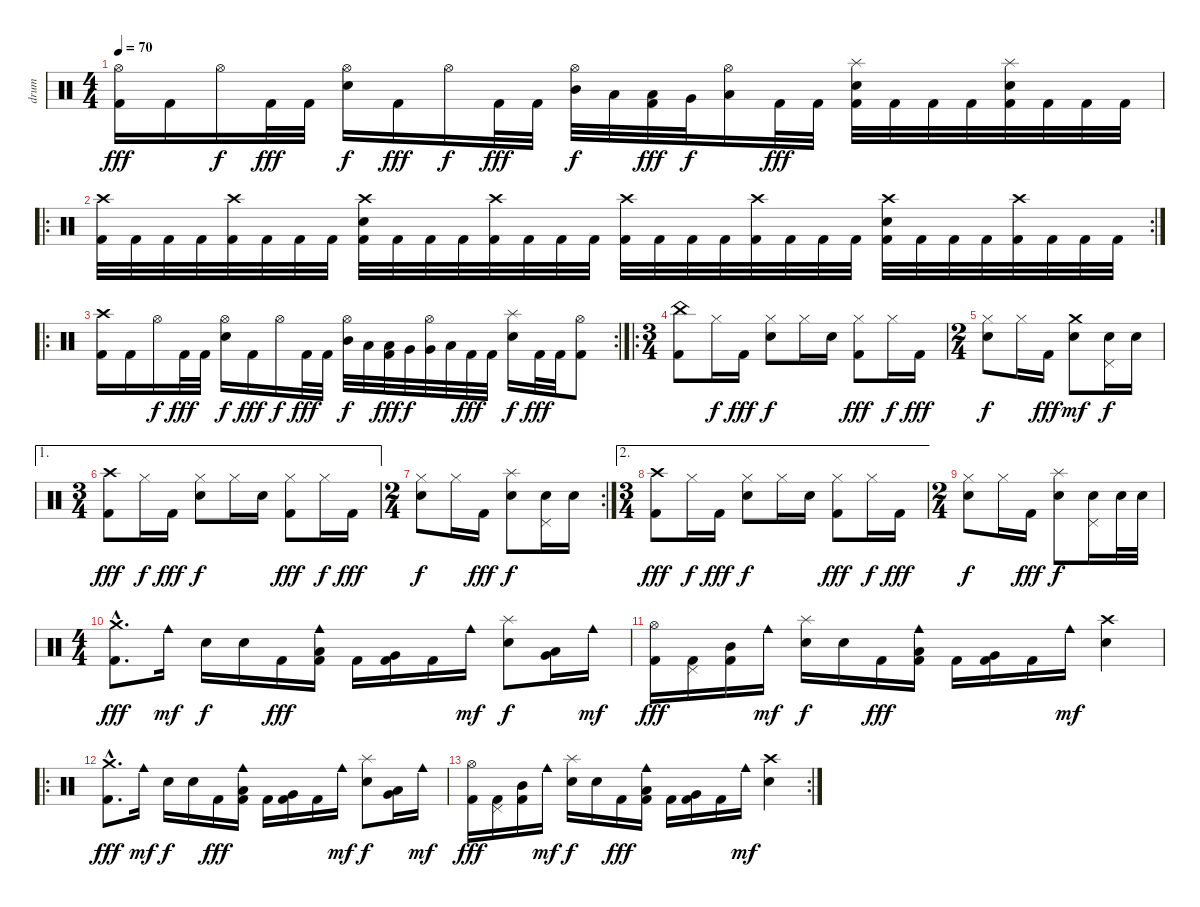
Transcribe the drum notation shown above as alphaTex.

\track ("drum" "drum") {instrument percussion}
\staff {score}
\articulation defaults
\ts (4 4)
\tempo 70
\clef neutral
\ks c
("Hi-Hat (open)" "Kick (hit) 2").16{dy fff} "Kick (hit) 2".16 "Hi-Hat (open)".16{dy f} "Kick (hit) 2".32{dy fff} "Kick (hit) 2".32 ("Hi-Hat (open)" "Electric Snare (hit)").16{dy f} "Kick (hit) 2".16{dy fff} "Hi-Hat (open)".16{dy f} "Kick (hit) 2".32{dy fff} "Kick (hit) 2".32 ("Hi-Hat (open)" "Mid Tom (hit)").32{dy f} "Low Tom (hit)".32 ("Low Tom (hit)" "Kick (hit) 2").32{dy fff} "Very Low Tom (hit)".32{dy f} ("Hi-Hat (open)" "Low Floor Tom (hit)").16 "Kick (hit) 2".32{dy fff} "Kick (hit) 2".32 ("Splash (hit)" "Electric Snare (hit)" "Kick (hit) 2").32 "Kick (hit) 2".32 "Kick (hit) 2".32 "Kick (hit) 2".32 ("Splash (hit)" "Electric Snare (hit)" "Kick (hit) 2").32 "Kick (hit) 2".32 "Kick (hit) 2".32 "Kick (hit) 2".32 |
\ro
\rc 2
("Crash high (hit)" "Kick (hit) 2").32 "Kick (hit) 2".32 "Kick (hit) 2".32 "Kick (hit) 2".32 ("Crash high (hit)" "Kick (hit) 2").32 "Kick (hit) 2".32 "Kick (hit) 2".32 "Kick (hit) 2".32 ("Crash high (hit)" "Electric Snare (hit)" "Kick (hit) 2").32 "Kick (hit) 2".32 "Kick (hit) 2".32 "Kick (hit) 2".32 ("Crash high (hit)" "Kick (hit) 2").32 "Kick (hit) 2".32 "Kick (hit) 2".32 "Kick (hit) 2".32 ("Crash high (hit)" "Kick (hit) 2").32 "Kick (hit) 2".32 "Kick (hit) 2".32 "Kick (hit) 2".32 ("Crash high (hit)" "Kick (hit) 2").32 "Kick (hit) 2".32 "Kick (hit) 2".32 "Kick (hit) 2".32 ("Crash high (hit)" "Electric Snare (hit)" "Kick (hit) 2").32 "Kick (hit) 2".32 "Kick (hit) 2".32 "Kick (hit) 2".32 ("Crash high (hit)" "Kick (hit) 2").32 "Kick (hit) 2".32 "Kick (hit) 2".32 "Kick (hit) 2".32 |
\ro
\rc 2
("Crash high (hit)" "Kick (hit) 2").16 "Kick (hit) 2".16 "Hi-Hat (open)".16{dy f} "Kick (hit) 2".32{dy fff} "Kick (hit) 2".32 ("Hi-Hat (open)" "Electric Snare (hit)").16{dy f} "Kick (hit) 2".16{dy fff} "Hi-Hat (open)".16{dy f} "Kick (hit) 2".32{dy fff} "Kick (hit) 2".32 ("Hi-Hat (open)" "Mid Tom (hit)").32{dy f} "Low Tom (hit)".32 ("Low Tom (hit)" "Kick (hit) 2").32{dy fff} "Very Low Tom (hit)".32{dy f} ("Hi-Hat (open)" "Very Low Tom (hit)").32 "Low Floor Tom (hit)".32 "Kick (hit) 2".32{dy fff} "Kick (hit) 2".32 ("Splash (hit)" "Electric Snare (hit)").16{dy f} "Kick (hit) 2".32{dy fff} "Kick (hit) 2".32 ("Hi-Hat (open)" "Kick (hit) 2").8 |
\ro
\ts (3 4)
("China (hit)" "Kick (hit) 2").8 "Hi-Hat (closed)".16{dy f} "Kick (hit) 2".16{dy fff} ("Hi-Hat (closed)" "Electric Snare (hit)").8{dy f} "Hi-Hat (closed)".16 "Electric Snare (hit)".16 ("Hi-Hat (closed)" "Kick (hit) 2").8{dy fff} "Hi-Hat (closed)".16{dy f} "Kick (hit) 2".16{dy fff} |
\ts (2 4)
("Hi-Hat (closed)" "Electric Snare (hit)").8{dy f} "Hi-Hat (closed)".16 "Kick (hit) 2".16{dy fff} ("Crash medium (hit)" "Electric Snare (hit)").8{dy mf} ("Pedal Hi-Hat (hit)" "Electric Snare (hit)").16{dy f} "Electric Snare (hit)".16 |
\ae 1
\ts (3 4)
("Crash high (hit)" "Kick (hit) 2").8{dy fff} "Hi-Hat (closed)".16{dy f} "Kick (hit) 2".16{dy fff} ("Hi-Hat (closed)" "Electric Snare (hit)").8{dy f} "Hi-Hat (closed)".16 "Electric Snare (hit)".16 ("Hi-Hat (closed)" "Kick (hit) 2").8{dy fff} "Hi-Hat (closed)".16{dy f} "Kick (hit) 2".16{dy fff} |
\rc 2
\ts (2 4)
("Hi-Hat (closed)" "Electric Snare (hit)").8{dy f} "Hi-Hat (closed)".16 "Kick (hit) 2".16{dy fff} ("Splash (hit)" "Electric Snare (hit)").8{dy f} ("Pedal Hi-Hat (hit)" "Electric Snare (hit)").16 "Electric Snare (hit)".16 |
\ae 2
\ts (3 4)
("Crash high (hit)" "Kick (hit) 2").8{dy fff} "Hi-Hat (closed)".16{dy f} "Kick (hit) 2".16{dy fff} ("Hi-Hat (closed)" "Electric Snare (hit)").8{dy f} "Hi-Hat (closed)".16 "Electric Snare (hit)".16 ("Hi-Hat (closed)" "Kick (hit) 2").8{dy fff} "Hi-Hat (closed)".16{dy f} "Kick (hit) 2".16{dy fff} |
\ts (2 4)
("Hi-Hat (closed)" "Electric Snare (hit)").8{dy f} "Hi-Hat (closed)".16 "Kick (hit) 2".16{dy fff} ("Splash (hit)" "Electric Snare (hit)").8{dy f} ("Pedal Hi-Hat (hit)" "Electric Snare (hit)").16 "Electric Snare (hit)".32 "Electric Snare (hit)".32 |
\ts (4 4)
("Crash medium (hit)"{hac} "Kick (hit) 2"{hac}).8{d dy fff} "Cowbell medium (hit)".16{dy mf} "Electric Snare (hit)".16{dy f} "Electric Snare (hit)".16 "Kick (hit) 2".16{dy fff} ("Cowbell medium (hit)" "Low Tom (hit)" "Kick (hit) 2").16 "Kick (hit) 2".16 ("Very Low Tom (hit)" "Kick (hit) 2").16 "Kick (hit) 2".16 "Cowbell medium (hit)".16{dy mf} ("Splash (hit)" "Electric Snare (hit)").8{dy f} ("Low Tom (hit)" "Very Low Tom (hit)").16 "Cowbell medium (hit)".16{dy mf} |
("Hi-Hat (open)" "Kick (hit) 2").16{dy fff} ("Pedal Hi-Hat (hit)" "Kick (hit) 2").16 ("Mid Tom (hit)" "Kick (hit) 2").16 "Cowbell medium (hit)".16{dy mf} ("Splash (hit)" "Electric Snare (hit)").16{dy f} "Electric Snare (hit)".16 "Kick (hit) 2".16{dy fff} ("Cowbell medium (hit)" "Low Tom (hit)" "Kick (hit) 2").16 "Kick (hit) 2".16 ("Very Low Tom (hit)" "Kick (hit) 2").16 "Kick (hit) 2".16 "Cowbell medium (hit)".16{dy mf} ("Crash high (hit)" "Electric Snare (hit)").4 |
\ro
("Crash medium (hit)"{hac} "Kick (hit) 2"{hac}).8{d dy fff} "Cowbell medium (hit)".16{dy mf} "Electric Snare (hit)".16{dy f} "Electric Snare (hit)".16 "Kick (hit) 2".16{dy fff} ("Cowbell medium (hit)" "Low Tom (hit)" "Kick (hit) 2").16 "Kick (hit) 2".16 ("Very Low Tom (hit)" "Kick (hit) 2").16 "Kick (hit) 2".16 "Cowbell medium (hit)".16{dy mf} ("Splash (hit)" "Electric Snare (hit)").8{dy f} ("Low Tom (hit)" "Very Low Tom (hit)").16 "Cowbell medium (hit)".16{dy mf} |
\rc 2
("Hi-Hat (open)" "Kick (hit) 2").16{dy fff} ("Pedal Hi-Hat (hit)" "Kick (hit) 2").16 ("Mid Tom (hit)" "Kick (hit) 2").16 "Cowbell medium (hit)".16{dy mf} ("Splash (hit)" "Electric Snare (hit)").16{dy f} "Electric Snare (hit)".16 "Kick (hit) 2".16{dy fff} ("Cowbell medium (hit)" "Low Tom (hit)" "Kick (hit) 2").16 "Kick (hit) 2".16 ("Very Low Tom (hit)" "Kick (hit) 2").16 "Kick (hit) 2".16 "Cowbell medium (hit)".16{dy mf} ("Crash high (hit)" "Electric Snare (hit)").4
